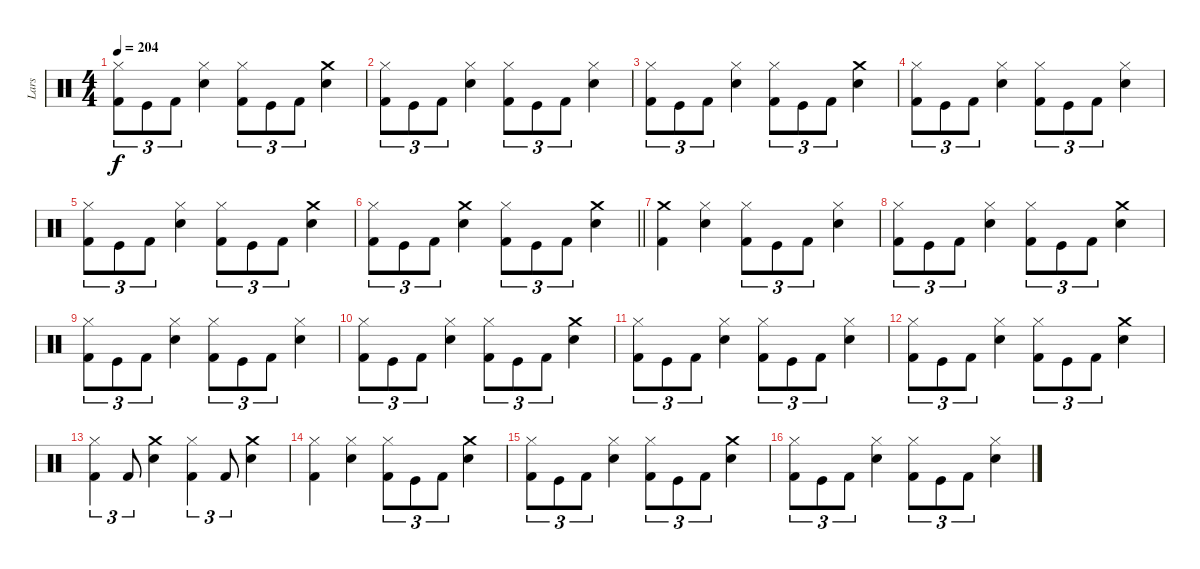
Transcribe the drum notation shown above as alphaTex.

\track ("Lars" "Lars") {instrument percussion}
\staff {score}
\articulation defaults
\ts (4 4)
\tempo 204
\clef neutral
\ks c
("Hi-Hat (closed)" "Kick (hit) 2").8{tu (3 2) dy f} "Kick (hit)".8{tu (3 2)} "Kick (hit) 2".8{tu (3 2)} ("Snare (hit) 2" "Hi-Hat (closed)").4 ("Hi-Hat (closed)" "Kick (hit) 2").8{tu (3 2)} "Kick (hit)".8{tu (3 2)} "Kick (hit) 2".8{tu (3 2)} ("Crash medium (hit)" "Snare (hit) 2").4 |
("Hi-Hat (closed)" "Kick (hit) 2").8{tu (3 2)} "Kick (hit)".8{tu (3 2)} "Kick (hit) 2".8{tu (3 2)} ("Snare (hit) 2" "Hi-Hat (closed)").4 ("Hi-Hat (closed)" "Kick (hit) 2").8{tu (3 2)} "Kick (hit)".8{tu (3 2)} "Kick (hit) 2".8{tu (3 2)} ("Hi-Hat (closed)" "Snare (hit) 2").4 |
("Hi-Hat (closed)" "Kick (hit) 2").8{tu (3 2)} "Kick (hit)".8{tu (3 2)} "Kick (hit) 2".8{tu (3 2)} ("Snare (hit) 2" "Hi-Hat (closed)").4 ("Hi-Hat (closed)" "Kick (hit) 2").8{tu (3 2)} "Kick (hit)".8{tu (3 2)} "Kick (hit) 2".8{tu (3 2)} ("Crash medium (hit)" "Snare (hit) 2").4 |
("Hi-Hat (closed)" "Kick (hit) 2").8{tu (3 2)} "Kick (hit)".8{tu (3 2)} "Kick (hit) 2".8{tu (3 2)} ("Snare (hit) 2" "Hi-Hat (closed)").4 ("Hi-Hat (closed)" "Kick (hit) 2").8{tu (3 2)} "Kick (hit)".8{tu (3 2)} "Kick (hit) 2".8{tu (3 2)} ("Hi-Hat (closed)" "Snare (hit) 2").4 |
("Hi-Hat (closed)" "Kick (hit) 2").8{tu (3 2)} "Kick (hit)".8{tu (3 2)} "Kick (hit) 2".8{tu (3 2)} ("Snare (hit) 2" "Hi-Hat (closed)").4 ("Hi-Hat (closed)" "Kick (hit) 2").8{tu (3 2)} "Kick (hit)".8{tu (3 2)} "Kick (hit) 2".8{tu (3 2)} ("Crash medium (hit)" "Snare (hit) 2").4 |
\barLineRight lightlight
("Hi-Hat (closed)" "Kick (hit) 2").8{tu (3 2)} "Kick (hit)".8{tu (3 2)} "Kick (hit) 2".8{tu (3 2)} ("Crash medium (hit)" "Snare (hit) 2").4 ("Hi-Hat (closed)" "Kick (hit) 2").8{tu (3 2)} "Kick (hit)".8{tu (3 2)} "Kick (hit) 2".8{tu (3 2)} ("Crash medium (hit)" "Snare (hit) 2").4 |
("Crash medium (hit)" "Kick (hit) 2").4 ("Snare (hit) 2" "Hi-Hat (closed)").4 ("Hi-Hat (closed)" "Kick (hit) 2").8{tu (3 2)} "Kick (hit)".8{tu (3 2)} "Kick (hit) 2".8{tu (3 2)} ("Hi-Hat (closed)" "Snare (hit) 2").4 |
("Hi-Hat (closed)" "Kick (hit) 2").8{tu (3 2)} "Kick (hit)".8{tu (3 2)} "Kick (hit) 2".8{tu (3 2)} ("Snare (hit) 2" "Hi-Hat (closed)").4 ("Hi-Hat (closed)" "Kick (hit) 2").8{tu (3 2)} "Kick (hit)".8{tu (3 2)} "Kick (hit) 2".8{tu (3 2)} ("Crash medium (hit)" "Snare (hit) 2").4 |
("Hi-Hat (closed)" "Kick (hit) 2").8{tu (3 2)} "Kick (hit)".8{tu (3 2)} "Kick (hit) 2".8{tu (3 2)} ("Snare (hit) 2" "Hi-Hat (closed)").4 ("Hi-Hat (closed)" "Kick (hit) 2").8{tu (3 2)} "Kick (hit)".8{tu (3 2)} "Kick (hit) 2".8{tu (3 2)} ("Hi-Hat (closed)" "Snare (hit) 2").4 |
("Hi-Hat (closed)" "Kick (hit) 2").8{tu (3 2)} "Kick (hit)".8{tu (3 2)} "Kick (hit) 2".8{tu (3 2)} ("Snare (hit) 2" "Hi-Hat (closed)").4 ("Hi-Hat (closed)" "Kick (hit) 2").8{tu (3 2)} "Kick (hit)".8{tu (3 2)} "Kick (hit) 2".8{tu (3 2)} ("Crash medium (hit)" "Snare (hit) 2").4 |
("Hi-Hat (closed)" "Kick (hit) 2").8{tu (3 2)} "Kick (hit)".8{tu (3 2)} "Kick (hit) 2".8{tu (3 2)} ("Snare (hit) 2" "Hi-Hat (closed)").4 ("Hi-Hat (closed)" "Kick (hit) 2").8{tu (3 2)} "Kick (hit)".8{tu (3 2)} "Kick (hit) 2".8{tu (3 2)} ("Hi-Hat (closed)" "Snare (hit) 2").4 |
("Hi-Hat (closed)" "Kick (hit) 2").8{tu (3 2)} "Kick (hit)".8{tu (3 2)} "Kick (hit) 2".8{tu (3 2)} ("Snare (hit) 2" "Hi-Hat (closed)").4 ("Hi-Hat (closed)" "Kick (hit) 2").8{tu (3 2)} "Kick (hit)".8{tu (3 2)} "Kick (hit) 2".8{tu (3 2)} ("Crash medium (hit)" "Snare (hit) 2").4 |
("Kick (hit) 2" "Hi-Hat (closed)").4{tu (3 2)} "Kick (hit) 2".8{tu (3 2)} ("Crash medium (hit)" "Snare (hit) 2").4 ("Kick (hit) 2" "Hi-Hat (closed)").4{tu (3 2)} "Kick (hit) 2".8{tu (3 2)} ("Crash medium (hit)" "Snare (hit) 2").4 |
("Hi-Hat (closed)" "Kick (hit) 2").4 ("Snare (hit) 2" "Hi-Hat (closed)").4 ("Hi-Hat (closed)" "Kick (hit) 2").8{tu (3 2)} "Kick (hit)".8{tu (3 2)} "Kick (hit) 2".8{tu (3 2)} ("Crash medium (hit)" "Snare (hit) 2").4 |
("Hi-Hat (closed)" "Kick (hit) 2").8{tu (3 2)} "Kick (hit)".8{tu (3 2)} "Kick (hit) 2".8{tu (3 2)} ("Snare (hit) 2" "Hi-Hat (closed)").4 ("Hi-Hat (closed)" "Kick (hit) 2").8{tu (3 2)} "Kick (hit)".8{tu (3 2)} "Kick (hit) 2".8{tu (3 2)} ("Crash medium (hit)" "Snare (hit) 2").4 |
("Hi-Hat (closed)" "Kick (hit) 2").8{tu (3 2)} "Kick (hit)".8{tu (3 2)} "Kick (hit) 2".8{tu (3 2)} ("Snare (hit) 2" "Hi-Hat (closed)").4 ("Hi-Hat (closed)" "Kick (hit) 2").8{tu (3 2)} "Kick (hit)".8{tu (3 2)} "Kick (hit) 2".8{tu (3 2)} ("Hi-Hat (closed)" "Snare (hit) 2").4
